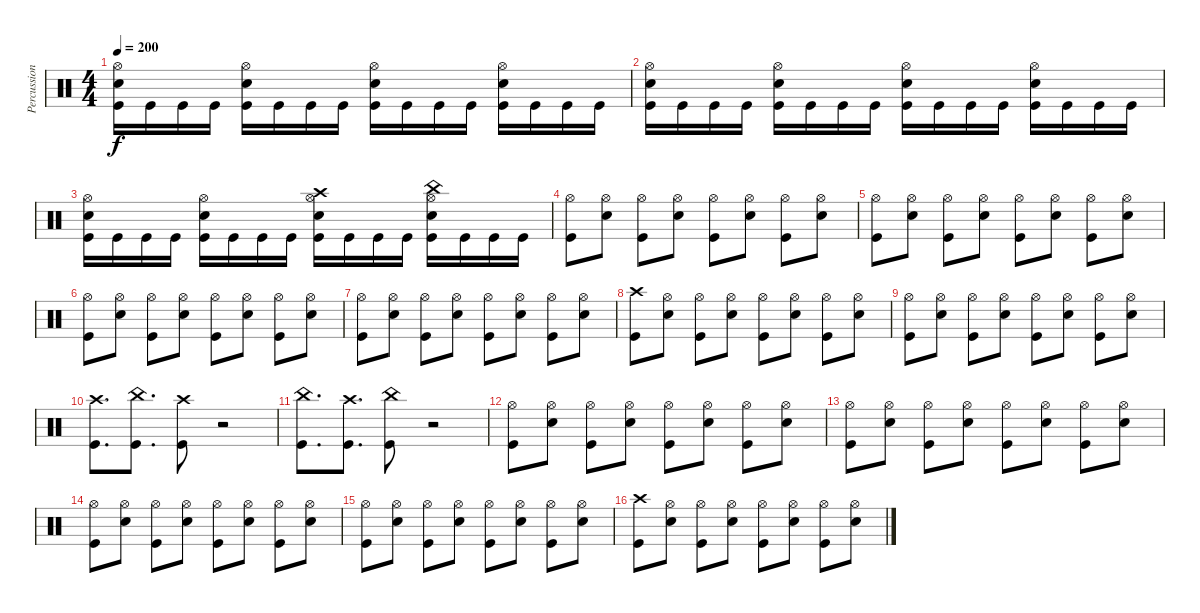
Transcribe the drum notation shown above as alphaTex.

\track ("Percussion" "Percussion") {instrument percussion}
\staff {score}
\articulation defaults
\ts (4 4)
\tempo 200
\clef neutral
\ks c
("Hi-Hat (open)" "Electric Snare (hit)" "Kick (hit)").16{dy f} "Kick (hit)".16 "Kick (hit)".16 "Kick (hit)".16 ("Hi-Hat (open)" "Electric Snare (hit)" "Kick (hit)").16 "Kick (hit)".16 "Kick (hit)".16 "Kick (hit)".16 ("Hi-Hat (open)" "Electric Snare (hit)" "Kick (hit)").16 "Kick (hit)".16 "Kick (hit)".16 "Kick (hit)".16 ("Hi-Hat (open)" "Electric Snare (hit)" "Kick (hit)").16 "Kick (hit)".16 "Kick (hit)".16 "Kick (hit)".16 |
("Hi-Hat (open)" "Electric Snare (hit)" "Kick (hit)").16 "Kick (hit)".16 "Kick (hit)".16 "Kick (hit)".16 ("Hi-Hat (open)" "Electric Snare (hit)" "Kick (hit)").16 "Kick (hit)".16 "Kick (hit)".16 "Kick (hit)".16 ("Hi-Hat (open)" "Electric Snare (hit)" "Kick (hit)").16 "Kick (hit)".16 "Kick (hit)".16 "Kick (hit)".16 ("Hi-Hat (open)" "Electric Snare (hit)" "Kick (hit)").16 "Kick (hit)".16 "Kick (hit)".16 "Kick (hit)".16 |
("Hi-Hat (open)" "Electric Snare (hit)" "Kick (hit)").16 "Kick (hit)".16 "Kick (hit)".16 "Kick (hit)".16 ("Hi-Hat (open)" "Electric Snare (hit)" "Kick (hit)").16 "Kick (hit)".16 "Kick (hit)".16 "Kick (hit)".16 ("Crash high (hit)" "Hi-Hat (open)" "Electric Snare (hit)" "Kick (hit)").16 "Kick (hit)".16 "Kick (hit)".16 "Kick (hit)".16 ("China (hit)" "Hi-Hat (open)" "Electric Snare (hit)" "Kick (hit)").16 "Kick (hit)".16 "Kick (hit)".16 "Kick (hit)".16 |
("Hi-Hat (open)" "Kick (hit)").8 ("Hi-Hat (open)" "Electric Snare (hit)").8 ("Hi-Hat (open)" "Kick (hit)").8 ("Hi-Hat (open)" "Electric Snare (hit)").8 ("Hi-Hat (open)" "Kick (hit)").8 ("Hi-Hat (open)" "Electric Snare (hit)").8 ("Hi-Hat (open)" "Kick (hit)").8 ("Hi-Hat (open)" "Electric Snare (hit)").8 |
("Hi-Hat (open)" "Kick (hit)").8 ("Hi-Hat (open)" "Electric Snare (hit)").8 ("Hi-Hat (open)" "Kick (hit)").8 ("Hi-Hat (open)" "Electric Snare (hit)").8 ("Hi-Hat (open)" "Kick (hit)").8 ("Hi-Hat (open)" "Electric Snare (hit)").8 ("Hi-Hat (open)" "Kick (hit)").8 ("Hi-Hat (open)" "Electric Snare (hit)").8 |
("Hi-Hat (open)" "Kick (hit)").8 ("Hi-Hat (open)" "Electric Snare (hit)").8 ("Hi-Hat (open)" "Kick (hit)").8 ("Hi-Hat (open)" "Electric Snare (hit)").8 ("Hi-Hat (open)" "Kick (hit)").8 ("Hi-Hat (open)" "Electric Snare (hit)").8 ("Hi-Hat (open)" "Kick (hit)").8 ("Hi-Hat (open)" "Electric Snare (hit)").8 |
("Hi-Hat (open)" "Kick (hit)").8 ("Hi-Hat (open)" "Electric Snare (hit)").8 ("Hi-Hat (open)" "Kick (hit)").8 ("Hi-Hat (open)" "Electric Snare (hit)").8 ("Hi-Hat (open)" "Kick (hit)").8 ("Hi-Hat (open)" "Electric Snare (hit)").8 ("Hi-Hat (open)" "Kick (hit)").8 ("Hi-Hat (open)" "Electric Snare (hit)").8 |
("Crash high (hit)" "Kick (hit)").8 ("Hi-Hat (open)" "Electric Snare (hit)").8 ("Hi-Hat (open)" "Kick (hit)").8 ("Hi-Hat (open)" "Electric Snare (hit)").8 ("Hi-Hat (open)" "Kick (hit)").8 ("Hi-Hat (open)" "Electric Snare (hit)").8 ("Hi-Hat (open)" "Kick (hit)").8 ("Hi-Hat (open)" "Electric Snare (hit)").8 |
("Hi-Hat (open)" "Kick (hit)").8 ("Hi-Hat (open)" "Electric Snare (hit)").8 ("Hi-Hat (open)" "Kick (hit)").8 ("Hi-Hat (open)" "Electric Snare (hit)").8 ("Hi-Hat (open)" "Kick (hit)").8 ("Hi-Hat (open)" "Electric Snare (hit)").8 ("Hi-Hat (open)" "Kick (hit)").8 ("Hi-Hat (open)" "Electric Snare (hit)").8 |
("Crash high (hit)" "Kick (hit)").8{d} ("China (hit)" "Kick (hit)").8{d} ("Crash high (hit)" "Kick (hit)").8 r.2 |
("China (hit)" "Kick (hit)").8{d} ("Crash high (hit)" "Kick (hit)").8{d} ("China (hit)" "Kick (hit)").8 r.2 |
("Hi-Hat (open)" "Kick (hit)").8 ("Hi-Hat (open)" "Electric Snare (hit)").8 ("Hi-Hat (open)" "Kick (hit)").8 ("Hi-Hat (open)" "Electric Snare (hit)").8 ("Hi-Hat (open)" "Kick (hit)").8 ("Hi-Hat (open)" "Electric Snare (hit)").8 ("Hi-Hat (open)" "Kick (hit)").8 ("Hi-Hat (open)" "Electric Snare (hit)").8 |
("Hi-Hat (open)" "Kick (hit)").8 ("Hi-Hat (open)" "Electric Snare (hit)").8 ("Hi-Hat (open)" "Kick (hit)").8 ("Hi-Hat (open)" "Electric Snare (hit)").8 ("Hi-Hat (open)" "Kick (hit)").8 ("Hi-Hat (open)" "Electric Snare (hit)").8 ("Hi-Hat (open)" "Kick (hit)").8 ("Hi-Hat (open)" "Electric Snare (hit)").8 |
("Hi-Hat (open)" "Kick (hit)").8 ("Hi-Hat (open)" "Electric Snare (hit)").8 ("Hi-Hat (open)" "Kick (hit)").8 ("Hi-Hat (open)" "Electric Snare (hit)").8 ("Hi-Hat (open)" "Kick (hit)").8 ("Hi-Hat (open)" "Electric Snare (hit)").8 ("Hi-Hat (open)" "Kick (hit)").8 ("Hi-Hat (open)" "Electric Snare (hit)").8 |
("Hi-Hat (open)" "Kick (hit)").8 ("Hi-Hat (open)" "Electric Snare (hit)").8 ("Hi-Hat (open)" "Kick (hit)").8 ("Hi-Hat (open)" "Electric Snare (hit)").8 ("Hi-Hat (open)" "Kick (hit)").8 ("Hi-Hat (open)" "Electric Snare (hit)").8 ("Hi-Hat (open)" "Kick (hit)").8 ("Hi-Hat (open)" "Electric Snare (hit)").8 |
("Crash high (hit)" "Kick (hit)").8 ("Hi-Hat (open)" "Electric Snare (hit)").8 ("Hi-Hat (open)" "Kick (hit)").8 ("Hi-Hat (open)" "Electric Snare (hit)").8 ("Hi-Hat (open)" "Kick (hit)").8 ("Hi-Hat (open)" "Electric Snare (hit)").8 ("Hi-Hat (open)" "Kick (hit)").8 ("Hi-Hat (open)" "Electric Snare (hit)").8
